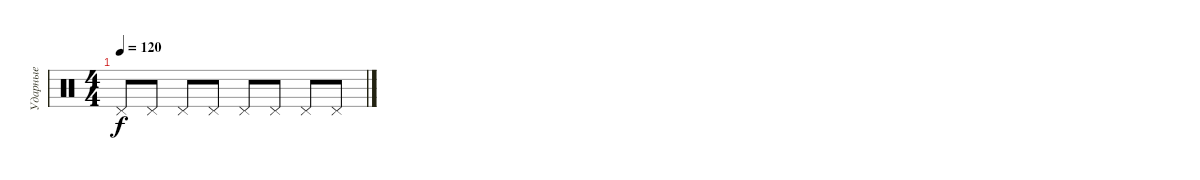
\track ("Ударные" "Ударные") {instrument percussion}
\staff {score}
\articulation defaults
\ts (4 4)
\tempo 120
\clef neutral
\ks c "Pedal Hi-Hat (hit)".8{dy f} "Pedal Hi-Hat (hit)".8 "Pedal Hi-Hat (hit)".8 "Pedal Hi-Hat (hit)".8 "Pedal Hi-Hat (hit)".8 "Pedal Hi-Hat (hit)".8 "Pedal Hi-Hat (hit)".8 "Pedal Hi-Hat (hit)".8
